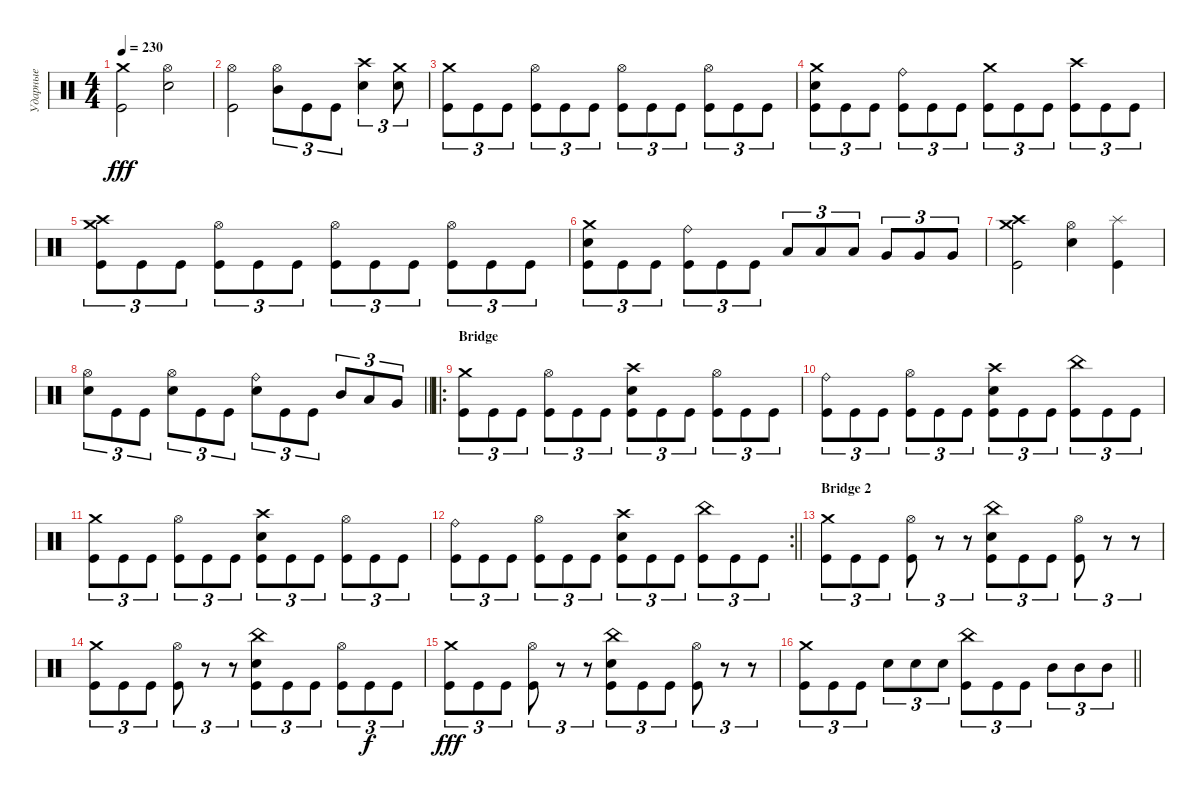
\track ("Ударные" "Ударные") {instrument percussion}
\staff {score}
\articulation defaults
\ts (4 4)
\tempo 230
\clef neutral
\ks c
("Crash medium (hit)" "Kick (hit)").2{dy fff} ("Electric Snare (hit)" "Hi-Hat (open)").2 |
("Hi-Hat (open)" "Kick (hit)").2 ("Mid Tom (hit)" "Hi-Hat (open)").8{tu (3 2)} "Kick (hit)".8{tu (3 2)} "Kick (hit)".8{tu (3 2)} ("Electric Snare (hit)" "Crash high (hit)").4{tu (3 2)} ("Crash medium (hit)" "Electric Snare (hit)").8{tu (3 2)} |
("Crash medium (hit)" "Kick (hit)").8{tu (3 2)} "Kick (hit)".8{tu (3 2)} "Kick (hit)".8{tu (3 2)} ("Kick (hit)" "Hi-Hat (open)").8{tu (3 2)} "Kick (hit)".8{tu (3 2)} "Kick (hit)".8{tu (3 2)} ("Kick (hit)" "Hi-Hat (open)").8{tu (3 2)} "Kick (hit)".8{tu (3 2)} "Kick (hit)".8{tu (3 2)} ("Kick (hit)" "Hi-Hat (open)").8{tu (3 2)} "Kick (hit)".8{tu (3 2)} "Kick (hit)".8{tu (3 2)} |
("Kick (hit)" "Electric Snare (hit)" "Crash medium (hit)").8{tu (3 2)} "Kick (hit)".8{tu (3 2)} "Kick (hit)".8{tu (3 2)} ("Kick (hit)" "Ride (bell)").8{tu (3 2)} "Kick (hit)".8{tu (3 2)} "Kick (hit)".8{tu (3 2)} ("Kick (hit)" "Crash medium (hit)").8{tu (3 2)} "Kick (hit)".8{tu (3 2)} "Kick (hit)".8{tu (3 2)} ("Kick (hit)" "Crash high (hit)").8{tu (3 2)} "Kick (hit)".8{tu (3 2)} "Kick (hit)".8{tu (3 2)} |
("Crash medium (hit)" "Kick (hit)" "Crash high (hit)").8{tu (3 2)} "Kick (hit)".8{tu (3 2)} "Kick (hit)".8{tu (3 2)} ("Kick (hit)" "Hi-Hat (open)").8{tu (3 2)} "Kick (hit)".8{tu (3 2)} "Kick (hit)".8{tu (3 2)} ("Kick (hit)" "Hi-Hat (open)").8{tu (3 2)} "Kick (hit)".8{tu (3 2)} "Kick (hit)".8{tu (3 2)} ("Kick (hit)" "Hi-Hat (open)").8{tu (3 2)} "Kick (hit)".8{tu (3 2)} "Kick (hit)".8{tu (3 2)} |
("Kick (hit)" "Electric Snare (hit)" "Crash medium (hit)").8{tu (3 2)} "Kick (hit)".8{tu (3 2)} "Kick (hit)".8{tu (3 2)} ("Kick (hit)" "Ride (bell)").8{tu (3 2)} "Kick (hit)".8{tu (3 2)} "Kick (hit)".8{tu (3 2)} "Low Tom (hit)".8{tu (3 2)} "Low Tom (hit)".8{tu (3 2)} "Low Tom (hit)".8{tu (3 2)} "Very Low Tom (hit)".8{tu (3 2)} "Very Low Tom (hit)".8{tu (3 2)} "Very Low Tom (hit)".8{tu (3 2)} |
("Crash high (hit)" "Crash medium (hit)" "Kick (hit)").2 ("Hi-Hat (open)" "Electric Snare (hit)").4 ("Splash (hit)" "Kick (hit)").4 |
\barLineRight lightlight
("Electric Snare (hit)" "Hi-Hat (open)").8{tu (3 2)} "Kick (hit)".8{tu (3 2)} "Kick (hit)".8{tu (3 2)} ("Electric Snare (hit)" "Hi-Hat (open)").8{tu (3 2)} "Kick (hit)".8{tu (3 2)} "Kick (hit)".8{tu (3 2)} ("Electric Snare (hit)" "Ride (bell)").8{tu (3 2)} "Kick (hit)".8{tu (3 2)} "Kick (hit)".8{tu (3 2)} "Mid Tom (hit)".8{tu (3 2)} "Low Tom (hit)".8{tu (3 2)} "Very Low Tom (hit)".8{tu (3 2)} |
\ro
\section ("" "Bridge")
("Crash medium (hit)" "Kick (hit)").8{tu (3 2)} "Kick (hit)".8{tu (3 2)} "Kick (hit)".8{tu (3 2)} ("Kick (hit)" "Hi-Hat (open)").8{tu (3 2)} "Kick (hit)".8{tu (3 2)} "Kick (hit)".8{tu (3 2)} ("Kick (hit)" "Crash high (hit)" "Electric Snare (hit)").8{tu (3 2)} "Kick (hit)".8{tu (3 2)} "Kick (hit)".8{tu (3 2)} ("Kick (hit)" "Hi-Hat (open)").8{tu (3 2)} "Kick (hit)".8{tu (3 2)} "Kick (hit)".8{tu (3 2)} |
("Ride (bell)" "Kick (hit)").8{tu (3 2)} "Kick (hit)".8{tu (3 2)} "Kick (hit)".8{tu (3 2)} ("Kick (hit)" "Hi-Hat (open)").8{tu (3 2)} "Kick (hit)".8{tu (3 2)} "Kick (hit)".8{tu (3 2)} ("Kick (hit)" "Crash high (hit)" "Electric Snare (hit)").8{tu (3 2)} "Kick (hit)".8{tu (3 2)} "Kick (hit)".8{tu (3 2)} ("Kick (hit)" "China (hit)").8{tu (3 2)} "Kick (hit)".8{tu (3 2)} "Kick (hit)".8{tu (3 2)} |
("Crash medium (hit)" "Kick (hit)").8{tu (3 2)} "Kick (hit)".8{tu (3 2)} "Kick (hit)".8{tu (3 2)} ("Kick (hit)" "Hi-Hat (open)").8{tu (3 2)} "Kick (hit)".8{tu (3 2)} "Kick (hit)".8{tu (3 2)} ("Kick (hit)" "Crash high (hit)" "Electric Snare (hit)").8{tu (3 2)} "Kick (hit)".8{tu (3 2)} "Kick (hit)".8{tu (3 2)} ("Kick (hit)" "Hi-Hat (open)").8{tu (3 2)} "Kick (hit)".8{tu (3 2)} "Kick (hit)".8{tu (3 2)} |
\rc 2
\barLineRight lightlight
("Ride (bell)" "Kick (hit)").8{tu (3 2)} "Kick (hit)".8{tu (3 2)} "Kick (hit)".8{tu (3 2)} ("Kick (hit)" "Hi-Hat (open)").8{tu (3 2)} "Kick (hit)".8{tu (3 2)} "Kick (hit)".8{tu (3 2)} ("Kick (hit)" "Crash high (hit)" "Electric Snare (hit)").8{tu (3 2)} "Kick (hit)".8{tu (3 2)} "Kick (hit)".8{tu (3 2)} ("Kick (hit)" "China (hit)").8{tu (3 2)} "Kick (hit)".8{tu (3 2)} "Kick (hit)".8{tu (3 2)} |
\section ("" "Bridge 2")
("Kick (hit)" "Crash medium (hit)").8{tu (3 2)} "Kick (hit)".8{tu (3 2)} "Kick (hit)".8{tu (3 2)} ("Kick (hit)" "Hi-Hat (open)").8{tu (3 2)} r.8{tu (3 2)} r.8{tu (3 2)} ("Kick (hit)" "Electric Snare (hit)" "China (hit)").8{tu (3 2)} "Kick (hit)".8{tu (3 2)} "Kick (hit)".8{tu (3 2)} ("Kick (hit)" "Hi-Hat (open)").8{tu (3 2)} r.8{tu (3 2)} r.8{tu (3 2)} |
("Kick (hit)" "Crash medium (hit)").8{tu (3 2)} "Kick (hit)".8{tu (3 2)} "Kick (hit)".8{tu (3 2)} ("Kick (hit)" "Hi-Hat (open)").8{tu (3 2)} r.8{tu (3 2)} r.8{tu (3 2)} ("Kick (hit)" "Electric Snare (hit)" "China (hit)").8{tu (3 2)} "Kick (hit)".8{tu (3 2)} "Kick (hit)".8{tu (3 2)} ("Kick (hit)" "Hi-Hat (open)").8{tu (3 2)} "Kick (hit)".8{tu (3 2) dy f} "Kick (hit)".8{tu (3 2)} |
("Kick (hit)" "Crash medium (hit)").8{tu (3 2) dy fff} "Kick (hit)".8{tu (3 2)} "Kick (hit)".8{tu (3 2)} ("Kick (hit)" "Hi-Hat (open)").8{tu (3 2)} r.8{tu (3 2)} r.8{tu (3 2)} ("Kick (hit)" "Electric Snare (hit)" "China (hit)").8{tu (3 2)} "Kick (hit)".8{tu (3 2)} "Kick (hit)".8{tu (3 2)} ("Kick (hit)" "Hi-Hat (open)").8{tu (3 2)} r.8{tu (3 2)} r.8{tu (3 2)} |
\barLineRight lightlight
("Crash medium (hit)" "Kick (hit)").8{tu (3 2)} "Kick (hit)".8{tu (3 2)} "Kick (hit)".8{tu (3 2)} "Electric Snare (hit)".8{tu (3 2)} "Electric Snare (hit)".8{tu (3 2)} "Electric Snare (hit)".8{tu (3 2)} ("Kick (hit)" "China (hit)").8{tu (3 2)} "Kick (hit)".8{tu (3 2)} "Kick (hit)".8{tu (3 2)} "Mid Tom (hit)".8{tu (3 2)} "Mid Tom (hit)".8{tu (3 2)} "Mid Tom (hit)".8{tu (3 2)}
